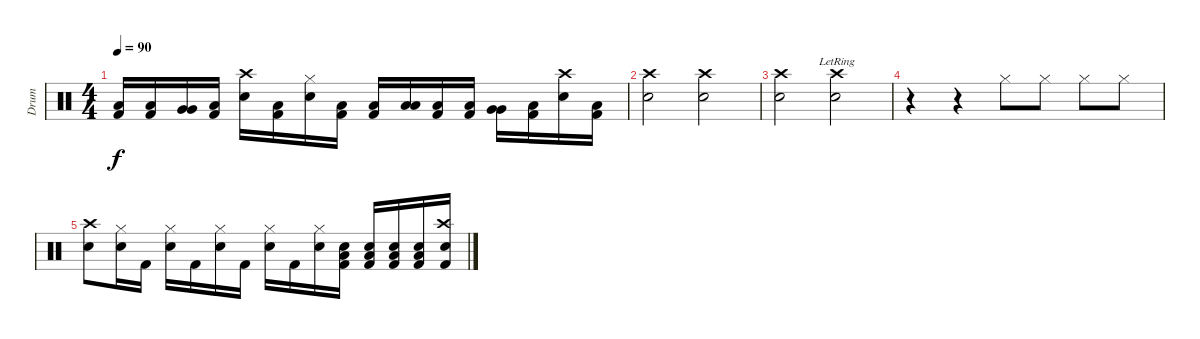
\track ("Drum" "Drum") {instrument percussion}
\staff {score}
\articulation defaults
\ts (4 4)
\tempo 90
\clef neutral
\ks c
("Low Tom (hit)" "Kick (hit) 2").16{dy f} ("Low Tom (hit)" "Kick (hit) 2").16 ("Very Low Tom (hit)" "Very Low Tom (hit)").16 ("Low Tom (hit)" "Kick (hit) 2").16 ("Crash high (hit)" "Electric Snare (hit)").16 ("Low Tom (hit)" "Kick (hit) 2").16 ("Hi-Hat (closed)" "Electric Snare (hit)").16 ("Low Tom (hit)" "Kick (hit) 2").16 ("Low Tom (hit)" "Kick (hit) 2").16 ("Low Tom (hit)" "Low Tom (hit)").16 ("Low Tom (hit)" "Kick (hit) 2").16 ("Low Tom (hit)" "Kick (hit) 2").16 ("Very Low Tom (hit)" "Very Low Tom (hit)").16 ("Low Tom (hit)" "Kick (hit) 2").16 ("Crash high (hit)" "Electric Snare (hit)").16 ("Low Tom (hit)" "Kick (hit) 2").16 |
("Crash high (hit)" "Electric Snare (hit)").2 ("Crash high (hit)" "Electric Snare (hit)").2 |
("Crash high (hit)" "Electric Snare (hit)").2 ("Crash high (hit)"{lr} "Electric Snare (hit)"{lr}).2 |
r.4 r.4 "Hi-Hat (closed)".8 "Hi-Hat (closed)".8 "Hi-Hat (closed)".8 "Hi-Hat (closed)".8 |
("Crash high (hit)" "Electric Snare (hit)").8 ("Hi-Hat (closed)" "Electric Snare (hit)").16 "Kick (hit) 2".16 ("Hi-Hat (closed)" "Electric Snare (hit)").16 "Kick (hit) 2".16 ("Hi-Hat (closed)" "Electric Snare (hit)").16 "Kick (hit) 2".16 ("Hi-Hat (closed)" "Electric Snare (hit)").16 "Kick (hit) 2".16 ("Hi-Hat (closed)" "Electric Snare (hit)").16 ("Low Tom (hit)" "Electric Snare (hit)" "Kick (hit) 2").16 ("Low Tom (hit)" "Electric Snare (hit)" "Kick (hit) 2").16 ("Low Tom (hit)" "Electric Snare (hit)" "Kick (hit) 2").16 ("Low Tom (hit)" "Electric Snare (hit)" "Kick (hit) 2").16 ("Crash high (hit)" "Electric Snare (hit)" "Kick (hit) 2").16
